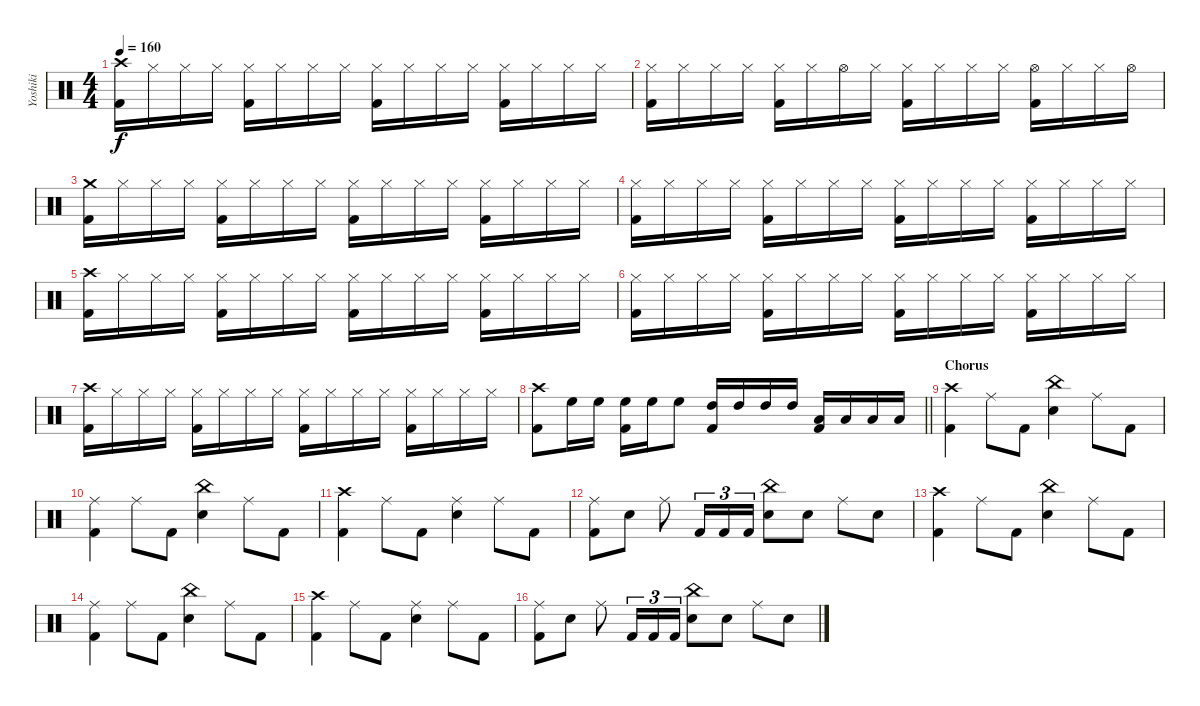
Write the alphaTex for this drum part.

\track ("Yoshiki" "Yoshiki") {instrument percussion}
\staff {score}
\articulation defaults
\ts (4 4)
\tempo 160
\clef neutral
\ks c
("Crash high (hit)" "Kick (hit) 2").16{dy f} "Hi-Hat (closed)".16 "Hi-Hat (closed)".16 "Hi-Hat (closed)".16 ("Hi-Hat (closed)" "Kick (hit) 2").16 "Hi-Hat (closed)".16 "Hi-Hat (closed)".16 "Hi-Hat (closed)".16 ("Hi-Hat (closed)" "Kick (hit) 2").16 "Hi-Hat (closed)".16 "Hi-Hat (closed)".16 "Hi-Hat (closed)".16 ("Hi-Hat (closed)" "Kick (hit) 2").16 "Hi-Hat (closed)".16 "Hi-Hat (closed)".16 "Hi-Hat (closed)".16 |
("Hi-Hat (closed)" "Kick (hit) 2").16 "Hi-Hat (closed)".16 "Hi-Hat (closed)".16 "Hi-Hat (closed)".16 ("Hi-Hat (closed)" "Kick (hit) 2").16 "Hi-Hat (closed)".16 "Hi-Hat (open)".16 "Hi-Hat (closed)".16 ("Hi-Hat (closed)" "Kick (hit) 2").16 "Hi-Hat (closed)".16 "Hi-Hat (closed)".16 "Hi-Hat (closed)".16 ("Hi-Hat (open)" "Kick (hit) 2").16 "Hi-Hat (closed)".16 "Hi-Hat (closed)".16 "Hi-Hat (open)".16 |
("Crash medium (hit)" "Kick (hit) 2").16 "Hi-Hat (closed)".16 "Hi-Hat (closed)".16 "Hi-Hat (closed)".16 ("Hi-Hat (closed)" "Kick (hit) 2").16 "Hi-Hat (closed)".16 "Hi-Hat (closed)".16 "Hi-Hat (closed)".16 ("Hi-Hat (closed)" "Kick (hit) 2").16 "Hi-Hat (closed)".16 "Hi-Hat (closed)".16 "Hi-Hat (closed)".16 ("Hi-Hat (closed)" "Kick (hit) 2").16 "Hi-Hat (closed)".16 "Hi-Hat (closed)".16 "Hi-Hat (closed)".16 |
("Hi-Hat (closed)" "Kick (hit) 2").16 "Hi-Hat (closed)".16 "Hi-Hat (closed)".16 "Hi-Hat (closed)".16 ("Hi-Hat (closed)" "Kick (hit) 2").16 "Hi-Hat (closed)".16 "Hi-Hat (closed)".16 "Hi-Hat (closed)".16 ("Hi-Hat (closed)" "Kick (hit) 2").16 "Hi-Hat (closed)".16 "Hi-Hat (closed)".16 "Hi-Hat (closed)".16 ("Hi-Hat (closed)" "Kick (hit) 2").16 "Hi-Hat (closed)".16 "Hi-Hat (closed)".16 "Hi-Hat (closed)".16 |
("Crash high (hit)" "Kick (hit) 2").16 "Hi-Hat (closed)".16 "Hi-Hat (closed)".16 "Hi-Hat (closed)".16 ("Hi-Hat (closed)" "Kick (hit) 2").16 "Hi-Hat (closed)".16 "Hi-Hat (closed)".16 "Hi-Hat (closed)".16 ("Hi-Hat (closed)" "Kick (hit) 2").16 "Hi-Hat (closed)".16 "Hi-Hat (closed)".16 "Hi-Hat (closed)".16 ("Hi-Hat (closed)" "Kick (hit) 2").16 "Hi-Hat (closed)".16 "Hi-Hat (closed)".16 "Hi-Hat (closed)".16 |
("Hi-Hat (closed)" "Kick (hit) 2").16 "Hi-Hat (closed)".16 "Hi-Hat (closed)".16 "Hi-Hat (closed)".16 ("Hi-Hat (closed)" "Kick (hit) 2").16 "Hi-Hat (closed)".16 "Hi-Hat (closed)".16 "Hi-Hat (closed)".16 ("Hi-Hat (closed)" "Kick (hit) 2").16 "Hi-Hat (closed)".16 "Hi-Hat (closed)".16 "Hi-Hat (closed)".16 ("Hi-Hat (closed)" "Kick (hit) 2").16 "Hi-Hat (closed)".16 "Hi-Hat (closed)".16 "Hi-Hat (closed)".16 |
("Crash high (hit)" "Kick (hit) 2").16 "Hi-Hat (closed)".16 "Hi-Hat (closed)".16 "Hi-Hat (closed)".16 ("Hi-Hat (closed)" "Kick (hit) 2").16 "Hi-Hat (closed)".16 "Hi-Hat (closed)".16 "Hi-Hat (closed)".16 ("Hi-Hat (closed)" "Kick (hit) 2").16 "Hi-Hat (closed)".16 "Hi-Hat (closed)".16 "Hi-Hat (closed)".16 ("Hi-Hat (closed)" "Kick (hit) 2").16 "Hi-Hat (closed)".16 "Hi-Hat (closed)".16 "Hi-Hat (closed)".16 |
\barLineRight lightlight
("Crash high (hit)" "Kick (hit) 2").8 "High Floor Tom (hit)".16 "High Floor Tom (hit)".16 ("High Floor Tom (hit)" "Kick (hit) 2").16 "High Floor Tom (hit)".16 "High Floor Tom (hit)".8 ("High Tom (hit)" "Kick (hit) 2").16 "High Tom (hit)".16 "High Tom (hit)".16 "High Tom (hit)".16 ("Low Tom (hit)" "Kick (hit) 2").16 "Low Tom (hit)".16 "Low Tom (hit)".16 "Low Tom (hit)".16 |
\section ("" "Chorus")
("Crash high (hit)" "Kick (hit) 2").4 "Ride (middle)".8 "Kick (hit) 2".8 ("China (hit)" "Snare (hit) 2").4 "Ride (middle)".8 "Kick (hit) 2".8 |
("Ride (middle)" "Kick (hit) 2").4 "Ride (middle)".8 "Kick (hit) 2".8 ("China (hit)" "Snare (hit) 2").4 "Ride (middle)".8 "Kick (hit) 2".8 |
("Crash high (hit)" "Kick (hit) 2").4 "Ride (middle)".8 "Kick (hit) 2".8 ("Ride (middle)" "Snare (hit) 2").4 "Ride (middle)".8 "Kick (hit) 2".8 |
("Ride (middle)" "Kick (hit) 2").8 "Snare (hit) 2".8 "Ride (middle)".8 "Kick (hit) 2".16{tu (3 2)} "Kick (hit) 2".16{tu (3 2)} "Kick (hit) 2".16{tu (3 2)} ("China (hit)" "Snare (hit) 2").8 "Snare (hit) 2".8 "Ride (middle)".8 "Snare (hit) 2".8 |
("Crash high (hit)" "Kick (hit) 2").4 "Ride (middle)".8 "Kick (hit) 2".8 ("China (hit)" "Snare (hit) 2").4 "Ride (middle)".8 "Kick (hit) 2".8 |
("Ride (middle)" "Kick (hit) 2").4 "Ride (middle)".8 "Kick (hit) 2".8 ("China (hit)" "Snare (hit) 2").4 "Ride (middle)".8 "Kick (hit) 2".8 |
("Crash high (hit)" "Kick (hit) 2").4 "Ride (middle)".8 "Kick (hit) 2".8 ("Ride (middle)" "Snare (hit) 2").4 "Ride (middle)".8 "Kick (hit) 2".8 |
("Ride (middle)" "Kick (hit) 2").8 "Snare (hit) 2".8 "Ride (middle)".8 "Kick (hit) 2".16{tu (3 2)} "Kick (hit) 2".16{tu (3 2)} "Kick (hit) 2".16{tu (3 2)} ("China (hit)" "Snare (hit) 2").8 "Snare (hit) 2".8 "Ride (middle)".8 "Snare (hit) 2".8
